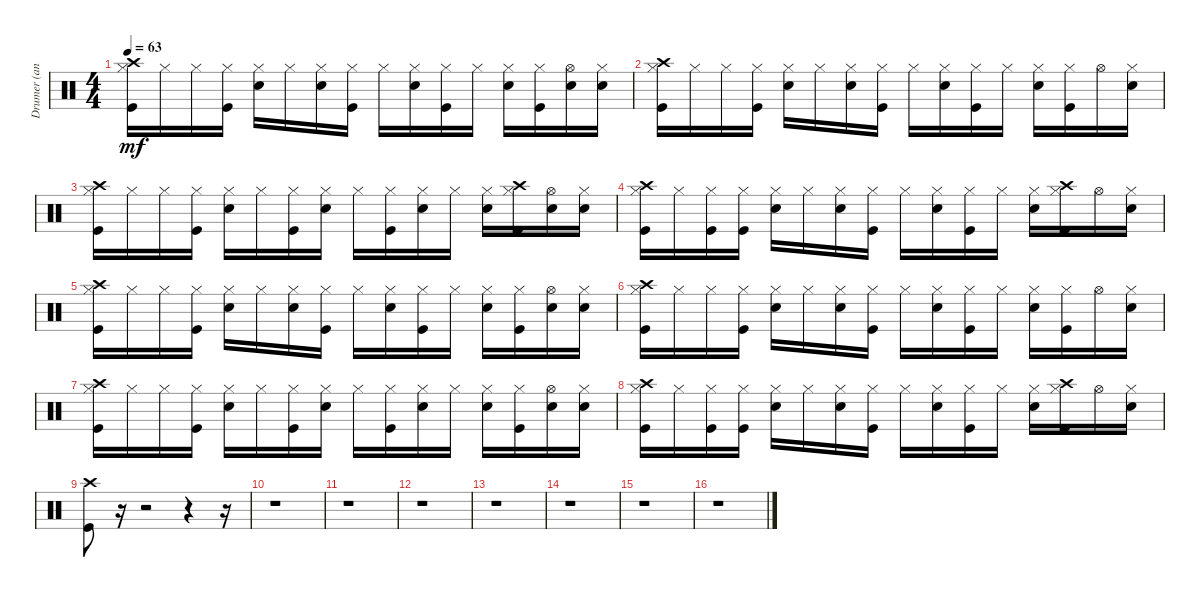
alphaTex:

\track ("Drumer (ananbakeri.blogspot.com)" "Drumer (an") {instrument percussion}
\staff {score}
\articulation defaults
\ts (4 4)
\tempo 63
\clef neutral
\ks c
("Hi-Hat (closed)" "Kick (hit)" "Crash high (hit)").16{dy mf} "Hi-Hat (closed)".16 "Hi-Hat (closed)".16 ("Hi-Hat (closed)" "Kick (hit)").16 ("Hi-Hat (closed)" "Snare (hit) 2").16 "Hi-Hat (closed)".16 ("Hi-Hat (closed)" "Snare (hit) 2").16 ("Hi-Hat (closed)" "Kick (hit)").16 "Hi-Hat (closed)".16 ("Hi-Hat (closed)" "Snare (hit) 2").16 ("Hi-Hat (closed)" "Kick (hit)").16 "Hi-Hat (closed)".16 ("Hi-Hat (closed)" "Snare (hit) 2").16 ("Hi-Hat (closed)" "Kick (hit)").16 ("Hi-Hat (open)" "Snare (hit) 2").16 ("Hi-Hat (closed)" "Snare (hit) 2").16 |
("Hi-Hat (closed)" "Kick (hit)" "Crash high (hit)").16 "Hi-Hat (closed)".16 "Hi-Hat (closed)".16 ("Hi-Hat (closed)" "Kick (hit)").16 ("Hi-Hat (closed)" "Snare (hit) 2").16 "Hi-Hat (closed)".16 ("Hi-Hat (closed)" "Snare (hit) 2").16 ("Hi-Hat (closed)" "Kick (hit)").16 "Hi-Hat (closed)".16 ("Hi-Hat (closed)" "Snare (hit) 2").16 ("Hi-Hat (closed)" "Kick (hit)").16 "Hi-Hat (closed)".16 ("Hi-Hat (closed)" "Snare (hit) 2").16 ("Hi-Hat (closed)" "Kick (hit)").16 "Hi-Hat (open)".16 ("Hi-Hat (closed)" "Snare (hit) 2").16 |
("Hi-Hat (closed)" "Kick (hit)" "Crash high (hit)").16 "Hi-Hat (closed)".16 "Hi-Hat (closed)".16 ("Hi-Hat (closed)" "Kick (hit)").16 ("Hi-Hat (closed)" "Snare (hit) 2").16 "Hi-Hat (closed)".16 ("Hi-Hat (closed)" "Kick (hit)").16 ("Hi-Hat (closed)" "Snare (hit) 2").16 "Hi-Hat (closed)".16 ("Hi-Hat (closed)" "Kick (hit)").16 ("Hi-Hat (closed)" "Snare (hit) 2").16 "Hi-Hat (closed)".16 ("Hi-Hat (closed)" "Snare (hit) 2").16 ("Hi-Hat (closed)" "Kick (hit)" "Crash high (hit)").16 ("Hi-Hat (open)" "Snare (hit) 2").16 ("Hi-Hat (closed)" "Snare (hit) 2").16 |
("Hi-Hat (closed)" "Kick (hit)" "Crash high (hit)").16 "Hi-Hat (closed)".16 ("Hi-Hat (closed)" "Kick (hit)").16 ("Hi-Hat (closed)" "Kick (hit)").16 ("Hi-Hat (closed)" "Snare (hit) 2").16 "Hi-Hat (closed)".16 ("Hi-Hat (closed)" "Snare (hit) 2").16 ("Hi-Hat (closed)" "Kick (hit)").16 "Hi-Hat (closed)".16 ("Hi-Hat (closed)" "Snare (hit) 2").16 ("Hi-Hat (closed)" "Kick (hit)").16 "Hi-Hat (closed)".16 ("Hi-Hat (closed)" "Snare (hit) 2").16 ("Hi-Hat (closed)" "Kick (hit)" "Crash high (hit)").16 "Hi-Hat (open)".16 ("Hi-Hat (closed)" "Snare (hit) 2").16 |
("Hi-Hat (closed)" "Kick (hit)" "Crash high (hit)").16 "Hi-Hat (closed)".16 "Hi-Hat (closed)".16 ("Hi-Hat (closed)" "Kick (hit)").16 ("Hi-Hat (closed)" "Snare (hit) 2").16 "Hi-Hat (closed)".16 ("Hi-Hat (closed)" "Snare (hit) 2").16 ("Hi-Hat (closed)" "Kick (hit)").16 "Hi-Hat (closed)".16 ("Hi-Hat (closed)" "Snare (hit) 2").16 ("Hi-Hat (closed)" "Kick (hit)").16 "Hi-Hat (closed)".16 ("Hi-Hat (closed)" "Snare (hit) 2").16 ("Hi-Hat (closed)" "Kick (hit)").16 ("Hi-Hat (open)" "Snare (hit) 2").16 ("Hi-Hat (closed)" "Snare (hit) 2").16 |
("Hi-Hat (closed)" "Kick (hit)" "Crash high (hit)").16 "Hi-Hat (closed)".16 "Hi-Hat (closed)".16 ("Hi-Hat (closed)" "Kick (hit)").16 ("Hi-Hat (closed)" "Snare (hit) 2").16 "Hi-Hat (closed)".16 ("Hi-Hat (closed)" "Snare (hit) 2").16 ("Hi-Hat (closed)" "Kick (hit)").16 "Hi-Hat (closed)".16 ("Hi-Hat (closed)" "Snare (hit) 2").16 ("Hi-Hat (closed)" "Kick (hit)").16 "Hi-Hat (closed)".16 ("Hi-Hat (closed)" "Snare (hit) 2").16 ("Hi-Hat (closed)" "Kick (hit)").16 "Hi-Hat (open)".16 ("Hi-Hat (closed)" "Snare (hit) 2").16 |
("Hi-Hat (closed)" "Kick (hit)" "Crash high (hit)").16 "Hi-Hat (closed)".16 "Hi-Hat (closed)".16 ("Hi-Hat (closed)" "Kick (hit)").16 ("Hi-Hat (closed)" "Snare (hit) 2").16 "Hi-Hat (closed)".16 ("Hi-Hat (closed)" "Kick (hit)").16 ("Hi-Hat (closed)" "Snare (hit) 2").16 "Hi-Hat (closed)".16 ("Hi-Hat (closed)" "Kick (hit)").16 ("Hi-Hat (closed)" "Snare (hit) 2").16 "Hi-Hat (closed)".16 ("Hi-Hat (closed)" "Snare (hit) 2").16 ("Hi-Hat (closed)" "Kick (hit)").16 ("Hi-Hat (open)" "Snare (hit) 2").16 ("Hi-Hat (closed)" "Snare (hit) 2").16 |
("Hi-Hat (closed)" "Kick (hit)" "Crash high (hit)").16 "Hi-Hat (closed)".16 ("Hi-Hat (closed)" "Kick (hit)").16 ("Hi-Hat (closed)" "Kick (hit)").16 ("Hi-Hat (closed)" "Snare (hit) 2").16 "Hi-Hat (closed)".16 ("Hi-Hat (closed)" "Snare (hit) 2").16 ("Hi-Hat (closed)" "Kick (hit)").16 "Hi-Hat (closed)".16 ("Hi-Hat (closed)" "Snare (hit) 2").16 ("Hi-Hat (closed)" "Kick (hit)").16 "Hi-Hat (closed)".16 ("Hi-Hat (closed)" "Snare (hit) 2").16 ("Hi-Hat (closed)" "Kick (hit)" "Crash high (hit)").16 "Hi-Hat (open)".16 ("Hi-Hat (closed)" "Snare (hit) 2").16 |
("Crash high (hit)" "Kick (hit)").8 r.16 r.2 r.4 r.16 |
r.1 |
r.1 |
r.1 |
r.1 |
r.1 |
r.1 |
r.1
